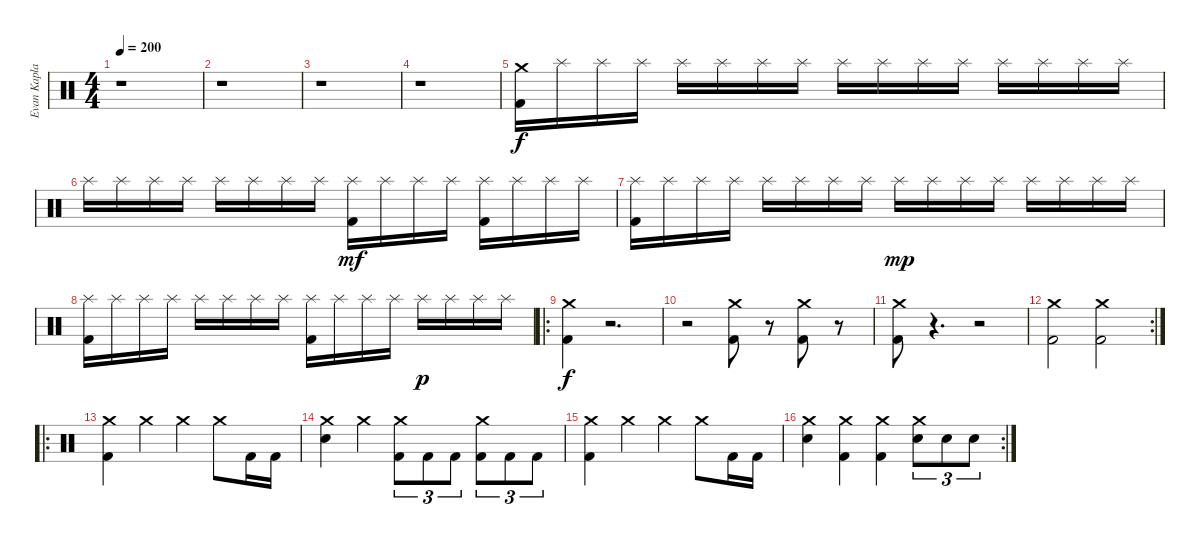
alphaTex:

\track ("Evan Kaplan (Drums)" "Evan Kapla") {instrument percussion}
\staff {score}
\articulation defaults
\ts (4 4)
\tempo 200
\clef neutral
\ks c
r.1{dy f} |
r.1 |
r.1 |
r.1 |
("Crash medium (hit)" "Kick (hit) 2").16 "Splash (hit)".16 "Splash (hit)".16 "Splash (hit)".16 "Splash (hit)".16 "Splash (hit)".16 "Splash (hit)".16 "Splash (hit)".16 "Splash (hit)".16 "Splash (hit)".16 "Splash (hit)".16 "Splash (hit)".16 "Splash (hit)".16 "Splash (hit)".16 "Splash (hit)".16 "Splash (hit)".16 |
"Splash (hit)".16 "Splash (hit)".16 "Splash (hit)".16 "Splash (hit)".16 "Splash (hit)".16 "Splash (hit)".16 "Splash (hit)".16 "Splash (hit)".16 ("Splash (hit)" "Kick (hit) 2").16{dy mf} "Splash (hit)".16 "Splash (hit)".16 "Splash (hit)".16 ("Splash (hit)" "Kick (hit) 2").16 "Splash (hit)".16 "Splash (hit)".16 "Splash (hit)".16 |
("Splash (hit)" "Kick (hit) 2").16 "Splash (hit)".16 "Splash (hit)".16 "Splash (hit)".16 "Splash (hit)".16 "Splash (hit)".16 "Splash (hit)".16 "Splash (hit)".16 "Splash (hit)".16{dy mp} "Splash (hit)".16 "Splash (hit)".16 "Splash (hit)".16 "Splash (hit)".16 "Splash (hit)".16 "Splash (hit)".16 "Splash (hit)".16 |
("Splash (hit)" "Kick (hit) 2").16 "Splash (hit)".16 "Splash (hit)".16 "Splash (hit)".16 "Splash (hit)".16 "Splash (hit)".16 "Splash (hit)".16 "Splash (hit)".16 ("Splash (hit)" "Kick (hit) 2").16 "Splash (hit)".16 "Splash (hit)".16 "Splash (hit)".16 "Splash (hit)".16{dy p} "Splash (hit)".16 "Splash (hit)".16 "Splash (hit)".16 |
\ro
("Crash medium (hit)" "Kick (hit) 2").4{dy f} r.2{d volume 0} |
r.2 ("Crash medium (hit)" "Kick (hit) 2").8{volume 13} r.8{volume 0} ("Crash medium (hit)" "Kick (hit) 2").8{volume 13} r.8{volume 0} |
("Crash medium (hit)" "Kick (hit) 2").8{volume 13} r.4{d volume 0} r.2 |
\rc 2
("Crash medium (hit)" "Kick (hit) 2").2{volume 13} ("Crash medium (hit)" "Kick (hit) 2").2 |
\ro
("Crash medium (hit)" "Kick (hit) 2").4 "Crash medium (hit)".4 "Crash medium (hit)".4 "Crash medium (hit)".8 "Kick (hit) 2".16 "Kick (hit) 2".16 |
("Crash medium (hit)" "Electric Snare (hit)").4 "Crash medium (hit)".4 ("Crash medium (hit)" "Kick (hit) 2").8{tu (3 2)} "Kick (hit) 2".8{tu (3 2)} "Kick (hit) 2".8{tu (3 2)} ("Crash medium (hit)" "Kick (hit) 2").8{tu (3 2)} "Kick (hit) 2".8{tu (3 2)} "Kick (hit) 2".8{tu (3 2)} |
("Crash medium (hit)" "Kick (hit) 2").4 "Crash medium (hit)".4 "Crash medium (hit)".4 "Crash medium (hit)".8 "Kick (hit) 2".16 "Kick (hit) 2".16 |
\rc 2
("Crash medium (hit)" "Electric Snare (hit)").4 ("Crash medium (hit)" "Kick (hit) 2").4 ("Crash medium (hit)" "Kick (hit) 2").4 ("Crash medium (hit)" "Electric Snare (hit)").8{tu (3 2)} "Electric Snare (hit)".8{tu (3 2)} "Electric Snare (hit)".8{tu (3 2)}
